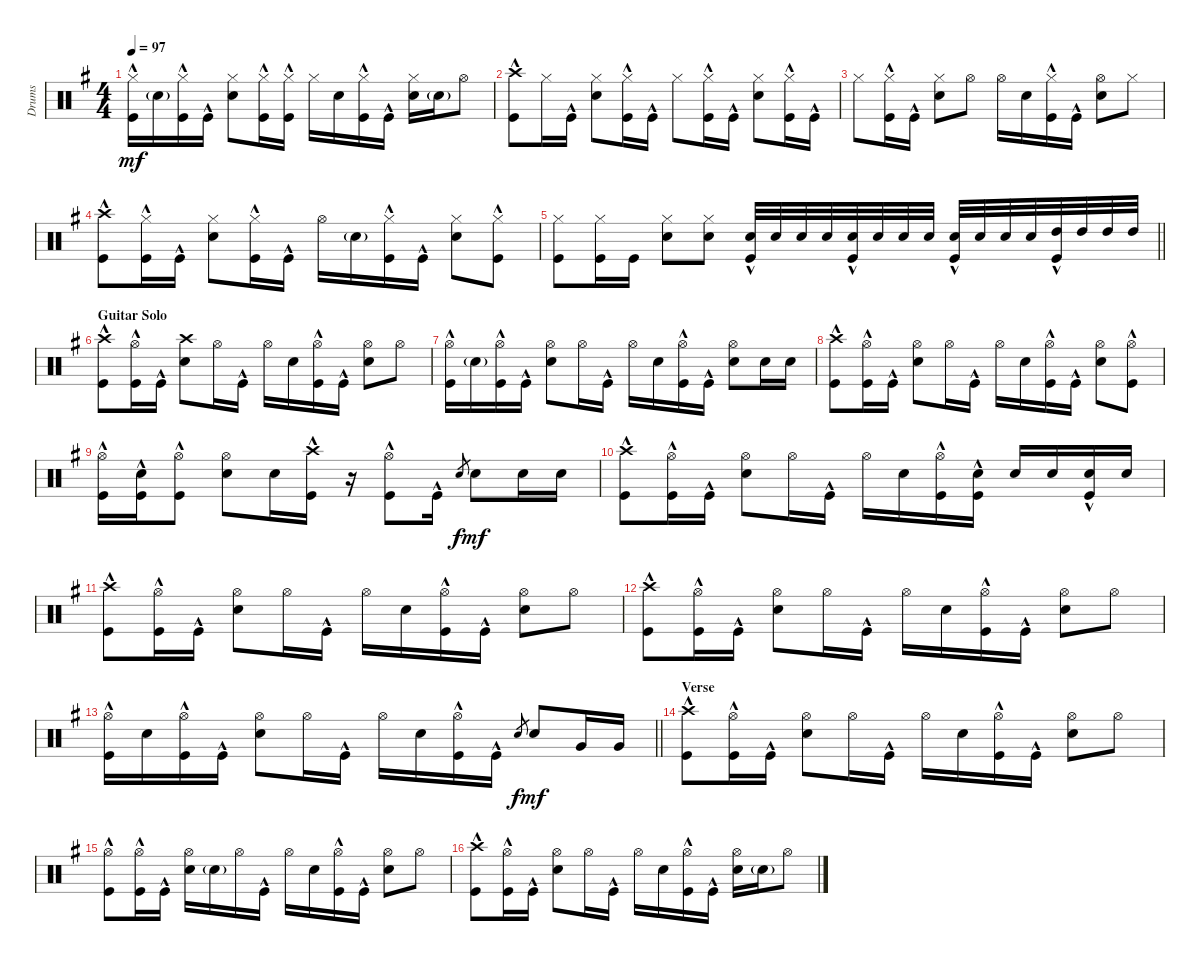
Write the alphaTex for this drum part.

\track ("Drums" "Drums") {instrument percussion}
\staff {score}
\articulation defaults
\ts (4 4)
\tempo 97
\clef neutral
\ks eminor
("Hi-Hat (closed)" "Kick (hit)"{hac}).16{dy mf} "Snare (hit) 2"{g}.16 ("Hi-Hat (closed)" "Kick (hit)"{hac}).16 "Kick (hit)"{hac}.16 ("Hi-Hat (closed)" "Snare (hit) 2").8 ("Hi-Hat (closed)" "Kick (hit)"{hac}).16 ("Hi-Hat (closed)" "Kick (hit)"{hac}).16 "Hi-Hat (closed)".16 "Snare (hit) 2".16 ("Hi-Hat (closed)" "Kick (hit)"{hac}).16 "Kick (hit)"{hac}.16 ("Hi-Hat (closed)" "Snare (hit) 2").16 "Snare (hit) 2"{g}.16 "Hi-Hat (open)".8 |
("Crash high (hit)" "Kick (hit)"{hac}).8 "Hi-Hat (closed)".16 "Kick (hit)"{hac}.16 ("Hi-Hat (closed)" "Snare (hit) 2").8 ("Hi-Hat (closed)" "Kick (hit)"{hac}).16 "Kick (hit)"{hac}.16 "Hi-Hat (closed)".8 ("Hi-Hat (closed)" "Kick (hit)"{hac}).16 "Kick (hit)"{hac}.16 ("Hi-Hat (closed)" "Snare (hit) 2").8 ("Hi-Hat (closed)" "Kick (hit)"{hac}).16 "Kick (hit)"{hac}.16 |
"Hi-Hat (closed)".8 ("Hi-Hat (closed)" "Kick (hit)"{hac}).16 "Kick (hit)"{hac}.16 ("Hi-Hat (closed)" "Snare (hit) 2").8 "Hi-Hat (open)".8 "Hi-Hat (open)".16 "Snare (hit) 2".16 ("Hi-Hat (closed)" "Kick (hit)"{hac}).16 "Kick (hit)"{hac}.16 ("Hi-Hat (open)" "Snare (hit) 2").8 "Hi-Hat (closed)".8 |
("Crash high (hit)" "Kick (hit)"{hac}).8 ("Hi-Hat (closed)" "Kick (hit)"{hac}).16 "Kick (hit)"{hac}.16 ("Hi-Hat (closed)" "Snare (hit) 2").8 ("Hi-Hat (closed)" "Kick (hit)"{hac}).16 "Kick (hit)"{hac}.16 "Hi-Hat (open)".16 "Snare (hit) 2"{g}.16 ("Hi-Hat (closed)" "Kick (hit)"{hac}).16 "Kick (hit)"{hac}.16 ("Hi-Hat (closed)" "Snare (hit) 2").8 ("Hi-Hat (closed)" "Kick (hit)"{hac}).8 |
\barLineRight lightlight
("Hi-Hat (closed)" "Kick (hit)").8 ("Hi-Hat (closed)" "Kick (hit)").16 "Kick (hit)".16 ("Hi-Hat (closed)" "Snare (hit) 2").8 ("Hi-Hat (closed)" "Snare (hit) 2").8 ("Snare (hit) 2" "Kick (hit)"{hac}).32 "Snare (hit) 2".32 "Snare (hit) 2".32 "Snare (hit) 2".32 ("Snare (hit) 2" "Kick (hit)"{hac}).32 "Snare (hit) 2".32 "Snare (hit) 2".32 "Snare (hit) 2".32 ("Snare (hit) 2" "Kick (hit)"{hac}).32 "Snare (hit) 2".32 "Snare (hit) 2".32 "Snare (hit) 2".32 ("High Tom (hit)" "Kick (hit)"{hac}).32 "High Tom (hit)".32 "High Tom (hit)".32 "High Tom (hit)".32 |
\section ("" "Guitar Solo")
("Crash high (hit)" "Kick (hit)"{hac}).8 ("Hi-Hat (open)" "Kick (hit)"{hac}).16 "Kick (hit)"{hac}.16 ("Crash high (hit)" "Snare (hit) 2").8 "Hi-Hat (open)".16 "Kick (hit)"{hac}.16 "Hi-Hat (open)".16 "Snare (hit) 2".16 ("Hi-Hat (open)" "Kick (hit)"{hac}).16 "Kick (hit)"{hac}.16 ("Hi-Hat (open)" "Snare (hit) 2").8 "Hi-Hat (open)".8 |
("Hi-Hat (open)" "Kick (hit)"{hac}).16 "Snare (hit) 2"{g}.16 ("Hi-Hat (open)" "Kick (hit)"{hac}).16 "Kick (hit)"{hac}.16 ("Hi-Hat (open)" "Snare (hit) 2").8 "Hi-Hat (open)".16 "Kick (hit)"{hac}.16 "Hi-Hat (open)".16 "Snare (hit) 2".16 ("Hi-Hat (open)" "Kick (hit)"{hac}).16 "Kick (hit)"{hac}.16 ("Hi-Hat (open)" "Snare (hit) 2").8 "Snare (hit) 2".16 "Snare (hit) 2".16 |
("Crash high (hit)" "Kick (hit)"{hac}).8 ("Hi-Hat (open)" "Kick (hit)"{hac}).16 "Kick (hit)"{hac}.16 ("Hi-Hat (open)" "Snare (hit) 2").8 "Hi-Hat (open)".16 "Kick (hit)"{hac}.16 "Hi-Hat (open)".16 "Snare (hit) 2".16 ("Hi-Hat (open)" "Kick (hit)"{hac}).16 "Kick (hit)"{hac}.16 ("Hi-Hat (open)" "Snare (hit) 2").8 ("Hi-Hat (open)" "Kick (hit)"{hac}).8 |
("Hi-Hat (open)" "Kick (hit)"{hac}).16 ("Snare (hit) 2" "Kick (hit)"{hac}).16 ("Hi-Hat (open)" "Kick (hit)"{hac}).8 ("Hi-Hat (open)" "Snare (hit) 2").8 "Snare (hit) 2".16 ("Crash high (hit)" "Kick (hit)"{hac}).16 r.16 ("Hi-Hat (open)" "Kick (hit)"{hac}).8 "Kick (hit)"{hac}.16 "Snare (hit) 2".8{gr dy f} "Snare (hit) 2".8{dy mf} "Snare (hit) 2".16 "Snare (hit) 2".16 |
("Crash high (hit)" "Kick (hit)"{hac}).8 ("Hi-Hat (open)" "Kick (hit)"{hac}).16 "Kick (hit)"{hac}.16 ("Hi-Hat (open)" "Snare (hit) 2").8 "Hi-Hat (open)".16 "Kick (hit)"{hac}.16 "Hi-Hat (open)".16 "Snare (hit) 2".16 ("Hi-Hat (open)" "Kick (hit)"{hac}).16 ("Snare (hit) 2" "Kick (hit)"{hac}).16 "Snare (hit) 2".16 "Snare (hit) 2".16 ("Snare (hit) 2" "Kick (hit)"{hac}).16 "Snare (hit) 2".16 |
("Crash high (hit)" "Kick (hit)"{hac}).8 ("Hi-Hat (open)" "Kick (hit)"{hac}).16 "Kick (hit)"{hac}.16 ("Hi-Hat (open)" "Snare (hit) 2").8 "Hi-Hat (open)".16 "Kick (hit)"{hac}.16 "Hi-Hat (open)".16 "Snare (hit) 2".16 ("Hi-Hat (open)" "Kick (hit)"{hac}).16 "Kick (hit)"{hac}.16 ("Hi-Hat (open)" "Snare (hit) 2").8 "Hi-Hat (open)".8 |
("Crash high (hit)" "Kick (hit)"{hac}).8 ("Hi-Hat (open)" "Kick (hit)"{hac}).16 "Kick (hit)"{hac}.16 ("Hi-Hat (open)" "Snare (hit) 2").8 "Hi-Hat (open)".16 "Kick (hit)"{hac}.16 "Hi-Hat (open)".16 "Snare (hit) 2".16 ("Hi-Hat (open)" "Kick (hit)"{hac}).16 "Kick (hit)"{hac}.16 ("Hi-Hat (open)" "Snare (hit) 2").8 "Hi-Hat (open)".8 |
\barLineRight lightlight
("Hi-Hat (open)" "Kick (hit)"{hac}).16 "Snare (hit) 2".16 ("Hi-Hat (open)" "Kick (hit)"{hac}).16 "Kick (hit)"{hac}.16 ("Hi-Hat (open)" "Snare (hit) 2").8 "Hi-Hat (open)".16 "Kick (hit)"{hac}.16 "Hi-Hat (open)".16 "Snare (hit) 2".16 ("Hi-Hat (open)" "Kick (hit)"{hac}).16 "Kick (hit)"{hac}.16 "Snare (hit) 2".8{gr dy f} "Snare (hit) 2".8{dy mf} "Very Low Tom (hit)".16 "Very Low Tom (hit)".16 |
\section ("" "Verse")
("Crash high (hit)" "Kick (hit)"{hac}).8 ("Hi-Hat (open)" "Kick (hit)"{hac}).16 "Kick (hit)"{hac}.16 ("Hi-Hat (open)" "Snare (hit) 2").8 "Hi-Hat (open)".16 "Kick (hit)"{hac}.16 "Hi-Hat (open)".16 "Snare (hit) 2".16 ("Hi-Hat (open)" "Kick (hit)"{hac}).16 "Kick (hit)"{hac}.16 ("Hi-Hat (open)" "Snare (hit) 2").8 "Hi-Hat (open)".8 |
("Hi-Hat (open)" "Kick (hit)"{hac}).8 ("Hi-Hat (open)" "Kick (hit)"{hac}).16 "Kick (hit)"{hac}.16 ("Hi-Hat (open)" "Snare (hit) 2").16 "Snare (hit) 2"{g}.16 "Hi-Hat (open)".16 "Kick (hit)"{hac}.16 "Hi-Hat (open)".16 "Snare (hit) 2".16 ("Hi-Hat (open)" "Kick (hit)"{hac}).16 "Kick (hit)"{hac}.16 ("Hi-Hat (open)" "Snare (hit) 2").8 "Hi-Hat (open)".8 |
("Crash high (hit)" "Kick (hit)"{hac}).8 ("Hi-Hat (open)" "Kick (hit)"{hac}).16 "Kick (hit)"{hac}.16 ("Hi-Hat (open)" "Snare (hit) 2").8 "Hi-Hat (open)".16 "Kick (hit)"{hac}.16 "Hi-Hat (open)".16 "Snare (hit) 2".16 ("Hi-Hat (open)" "Kick (hit)"{hac}).16 "Kick (hit)"{hac}.16 ("Hi-Hat (open)" "Snare (hit) 2").16 "Snare (hit) 2"{g}.16 "Hi-Hat (open)".8
